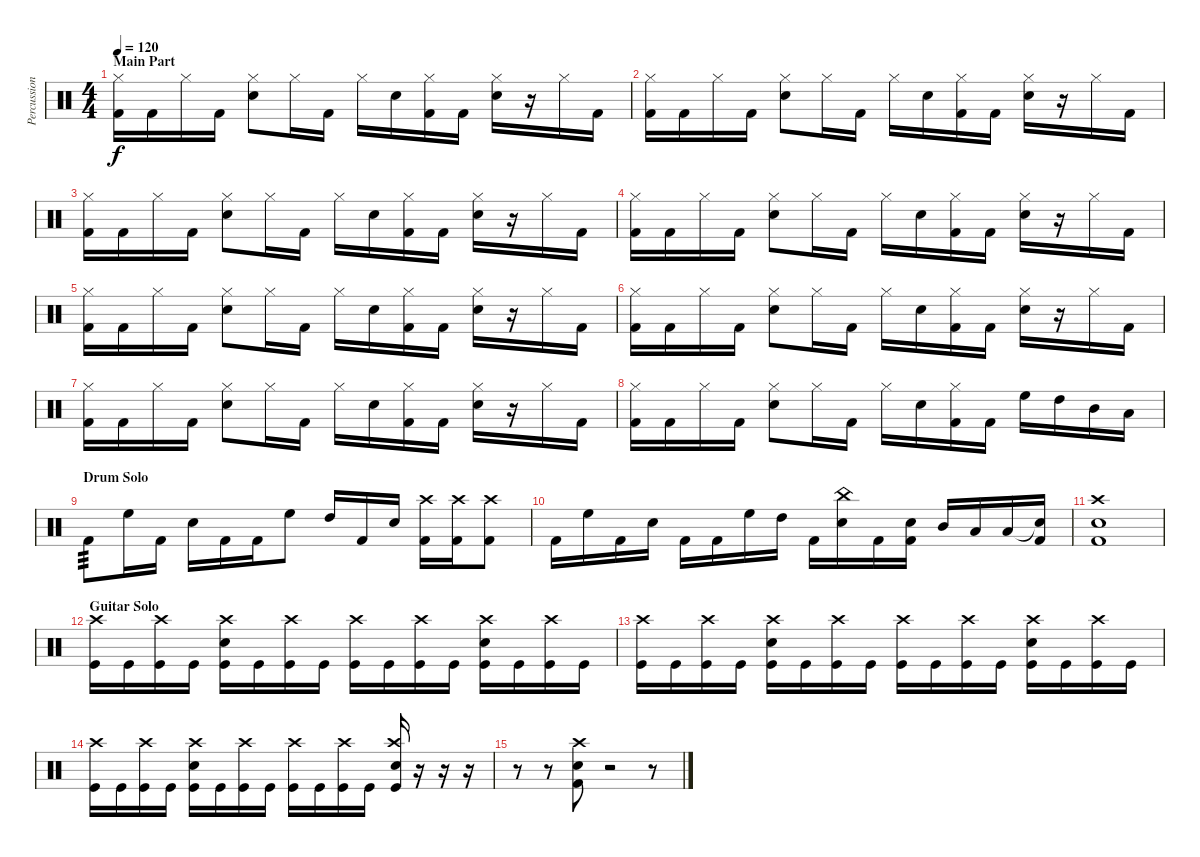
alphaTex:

\track ("Percussion" "Percussion") {instrument percussion}
\staff {score}
\articulation defaults
\ts (4 4)
\section ("" "Main Part")
\tempo 120
\clef neutral
\ks c
("Hi-Hat (closed)" "Kick (hit) 2").16{dy f} "Kick (hit) 2".16 "Hi-Hat (closed)".16 "Kick (hit) 2".16 ("Hi-Hat (closed)" "Electric Snare (hit)").8 "Hi-Hat (closed)".16 "Kick (hit) 2".16 "Hi-Hat (closed)".16 "Electric Snare (hit)".16 ("Hi-Hat (closed)" "Kick (hit) 2").16 "Kick (hit) 2".16 ("Hi-Hat (closed)" "Electric Snare (hit)").16 r.16 "Hi-Hat (closed)".16 "Kick (hit) 2".16 |
("Hi-Hat (closed)" "Kick (hit) 2").16 "Kick (hit) 2".16 "Hi-Hat (closed)".16 "Kick (hit) 2".16 ("Hi-Hat (closed)" "Electric Snare (hit)").8 "Hi-Hat (closed)".16 "Kick (hit) 2".16 "Hi-Hat (closed)".16 "Electric Snare (hit)".16 ("Hi-Hat (closed)" "Kick (hit) 2").16 "Kick (hit) 2".16 ("Hi-Hat (closed)" "Electric Snare (hit)").16 r.16 "Hi-Hat (closed)".16 "Kick (hit) 2".16 |
("Hi-Hat (closed)" "Kick (hit) 2").16 "Kick (hit) 2".16 "Hi-Hat (closed)".16 "Kick (hit) 2".16 ("Hi-Hat (closed)" "Electric Snare (hit)").8 "Hi-Hat (closed)".16 "Kick (hit) 2".16 "Hi-Hat (closed)".16 "Electric Snare (hit)".16 ("Hi-Hat (closed)" "Kick (hit) 2").16 "Kick (hit) 2".16 ("Hi-Hat (closed)" "Electric Snare (hit)").16 r.16 "Hi-Hat (closed)".16 "Kick (hit) 2".16 |
("Hi-Hat (closed)" "Kick (hit) 2").16 "Kick (hit) 2".16 "Hi-Hat (closed)".16 "Kick (hit) 2".16 ("Hi-Hat (closed)" "Electric Snare (hit)").8 "Hi-Hat (closed)".16 "Kick (hit) 2".16 "Hi-Hat (closed)".16 "Electric Snare (hit)".16 ("Hi-Hat (closed)" "Kick (hit) 2").16 "Kick (hit) 2".16 ("Hi-Hat (closed)" "Electric Snare (hit)").16 r.16 "Hi-Hat (closed)".16 "Kick (hit) 2".16 |
("Hi-Hat (closed)" "Kick (hit) 2").16 "Kick (hit) 2".16 "Hi-Hat (closed)".16 "Kick (hit) 2".16 ("Hi-Hat (closed)" "Electric Snare (hit)").8 "Hi-Hat (closed)".16 "Kick (hit) 2".16 "Hi-Hat (closed)".16 "Electric Snare (hit)".16 ("Hi-Hat (closed)" "Kick (hit) 2").16 "Kick (hit) 2".16 ("Hi-Hat (closed)" "Electric Snare (hit)").16 r.16 "Hi-Hat (closed)".16 "Kick (hit) 2".16 |
("Hi-Hat (closed)" "Kick (hit) 2").16 "Kick (hit) 2".16 "Hi-Hat (closed)".16 "Kick (hit) 2".16 ("Hi-Hat (closed)" "Electric Snare (hit)").8 "Hi-Hat (closed)".16 "Kick (hit) 2".16 "Hi-Hat (closed)".16 "Electric Snare (hit)".16 ("Hi-Hat (closed)" "Kick (hit) 2").16 "Kick (hit) 2".16 ("Hi-Hat (closed)" "Electric Snare (hit)").16 r.16 "Hi-Hat (closed)".16 "Kick (hit) 2".16 |
("Hi-Hat (closed)" "Kick (hit) 2").16 "Kick (hit) 2".16 "Hi-Hat (closed)".16 "Kick (hit) 2".16 ("Hi-Hat (closed)" "Electric Snare (hit)").8 "Hi-Hat (closed)".16 "Kick (hit) 2".16 "Hi-Hat (closed)".16 "Electric Snare (hit)".16 ("Hi-Hat (closed)" "Kick (hit) 2").16 "Kick (hit) 2".16 ("Hi-Hat (closed)" "Electric Snare (hit)").16 r.16 "Hi-Hat (closed)".16 "Kick (hit) 2".16 |
("Hi-Hat (closed)" "Kick (hit) 2").16 "Kick (hit) 2".16 "Hi-Hat (closed)".16 "Kick (hit) 2".16 ("Hi-Hat (closed)" "Electric Snare (hit)").8 "Hi-Hat (closed)".16 "Kick (hit) 2".16 "Hi-Hat (closed)".16 "Electric Snare (hit)".16 ("Hi-Hat (closed)" "Kick (hit) 2").16 "Kick (hit) 2".16 "High Floor Tom (hit)".16 "High Tom (hit)".16 "Mid Tom (hit)".16 "Low Tom (hit)".16 |
\section ("" "Drum Solo")
"Kick (hit) 2".8{tp 3} "High Floor Tom (hit)".16 "Kick (hit) 2".16 "Electric Snare (hit)".16 "Kick (hit) 2".16 "Kick (hit) 2".16 "High Floor Tom (hit)".8 "High Tom (hit)".16 "Kick (hit) 2".16 "Electric Snare (hit)".16 ("Crash high (hit)" "Kick (hit) 2").16 ("Crash high (hit)" "Kick (hit) 2").16 ("Crash high (hit)" "Kick (hit) 2").8 |
"Kick (hit) 2".16 "High Floor Tom (hit)".16 "Kick (hit) 2".16 "Electric Snare (hit)".16 "Kick (hit) 2".16 "Kick (hit) 2".16 "High Floor Tom (hit)".16 "High Tom (hit)".16 "Kick (hit) 2".16 ("China (hit)" "Electric Snare (hit)").16 "Kick (hit) 2".16 ("Electric Snare (hit)" "Kick (hit) 2").16 "Mid Tom (hit)".16 "Low Tom (hit)".16 "Low Floor Tom (hit)".16 ("Snare (hit)"{t} "Kick (hit) 2").16 |
("Crash high (hit)" "Electric Snare (hit)" "Kick (hit) 2").1 |
\section ("" "Guitar Solo")
("Crash high (hit)" "Kick (hit)").16 "Kick (hit)".16 ("Crash high (hit)" "Kick (hit)").16 "Kick (hit)".16 ("Crash high (hit)" "Electric Snare (hit)" "Kick (hit)").16 "Kick (hit)".16 ("Crash high (hit)" "Kick (hit)").16 "Kick (hit)".16 ("Crash high (hit)" "Kick (hit)").16 "Kick (hit)".16 ("Crash high (hit)" "Kick (hit)").16 "Kick (hit)".16 ("Crash high (hit)" "Electric Snare (hit)" "Kick (hit)").16 "Kick (hit)".16 ("Crash high (hit)" "Kick (hit)").16 "Kick (hit)".16 |
("Crash high (hit)" "Kick (hit)").16 "Kick (hit)".16 ("Crash high (hit)" "Kick (hit)").16 "Kick (hit)".16 ("Crash high (hit)" "Electric Snare (hit)" "Kick (hit)").16 "Kick (hit)".16 ("Crash high (hit)" "Kick (hit)").16 "Kick (hit)".16 ("Crash high (hit)" "Kick (hit)").16 "Kick (hit)".16 ("Crash high (hit)" "Kick (hit)").16 "Kick (hit)".16 ("Crash high (hit)" "Electric Snare (hit)" "Kick (hit)").16 "Kick (hit)".16 ("Crash high (hit)" "Kick (hit)").16 "Kick (hit)".16 |
("Crash high (hit)" "Kick (hit)").16 "Kick (hit)".16 ("Crash high (hit)" "Kick (hit)").16 "Kick (hit)".16 ("Crash high (hit)" "Electric Snare (hit)" "Kick (hit)").16 "Kick (hit)".16 ("Crash high (hit)" "Kick (hit)").16 "Kick (hit)".16 ("Crash high (hit)" "Kick (hit)").16 "Kick (hit)".16 ("Crash high (hit)" "Kick (hit)").16 "Kick (hit)".16 ("Crash high (hit)" "Electric Snare (hit)" "Kick (hit)").16 r.16 r.16 r.16 |
r.8 r.8 ("Crash high (hit)" "Electric Snare (hit)" "Kick (hit) 2").8 r.2 r.8
